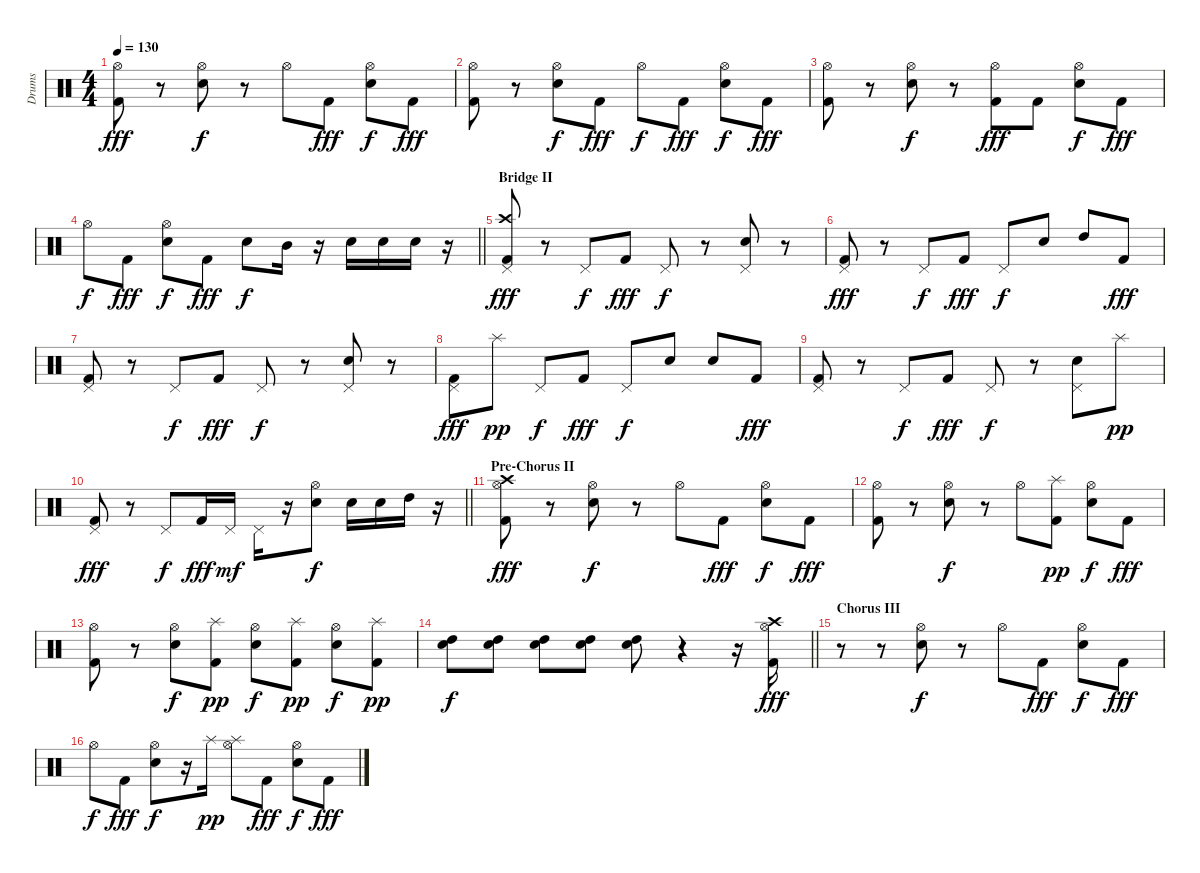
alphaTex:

\track ("Drums" "Drums") {instrument percussion}
\staff {score}
\articulation defaults
\ts (4 4)
\tempo 130
\clef neutral
\ks c
("Kick (hit) 2" "Hi-Hat (open)").8{dy fff} r.8 ("Snare (hit) 2" "Hi-Hat (open)").8{dy f} r.8 "Hi-Hat (open)".8 "Kick (hit) 2".8{dy fff} ("Snare (hit) 2" "Hi-Hat (open)").8{dy f} "Kick (hit) 2".8{dy fff} |
("Kick (hit) 2" "Hi-Hat (open)").8 r.8 ("Snare (hit) 2" "Hi-Hat (open)").8{dy f} "Kick (hit) 2".8{dy fff} "Hi-Hat (open)".8{dy f} "Kick (hit) 2".8{dy fff} ("Snare (hit) 2" "Hi-Hat (open)").8{dy f} "Kick (hit) 2".8{dy fff} |
("Kick (hit) 2" "Hi-Hat (open)").8 r.8 ("Snare (hit) 2" "Hi-Hat (open)").8{dy f} r.8 ("Kick (hit) 2" "Hi-Hat (open)").8{dy fff} "Kick (hit) 2".8 ("Snare (hit) 2" "Hi-Hat (open)").8{dy f} "Kick (hit) 2".8{dy fff} |
\barLineRight lightlight "Hi-Hat (open)".8{dy f} "Kick (hit) 2".8{dy fff}
("Snare (hit) 2" "Hi-Hat (open)").8{dy f} "Kick (hit) 2".8{dy fff} "Snare (hit) 2".8{dy f} "Mid Tom (hit)".16 r.16 "Snare (hit) 2".16 "Snare (hit) 2".16 "Snare (hit) 2".16 r.16 |
\section ("" "Bridge II")
("Kick (hit) 2" "Crash high (hit)" "Pedal Hi-Hat (hit)").8{dy fff} r.8 "Pedal Hi-Hat (hit)".8{dy f} "Kick (hit) 2".8{dy fff} "Pedal Hi-Hat (hit)".8{dy f} r.8 ("Snare (hit) 2" "Pedal Hi-Hat (hit)").8 r.8 |
("Kick (hit) 2" "Pedal Hi-Hat (hit)").8{dy fff} r.8 "Pedal Hi-Hat (hit)".8{dy f} "Kick (hit) 2".8{dy fff} "Pedal Hi-Hat (hit)".8{dy f} "Snare (hit) 2".8 "High Tom (hit)".8 "Kick (hit) 2".8{dy fff} |
("Kick (hit) 2" "Pedal Hi-Hat (hit)").8 r.8 "Pedal Hi-Hat (hit)".8{dy f} "Kick (hit) 2".8{dy fff} "Pedal Hi-Hat (hit)".8{dy f} r.8 ("Snare (hit) 2" "Pedal Hi-Hat (hit)").8 r.8 |
("Kick (hit) 2" "Pedal Hi-Hat (hit)").8{dy fff} "Splash (hit)".8{dy pp} "Pedal Hi-Hat (hit)".8{dy f} "Kick (hit) 2".8{dy fff} "Pedal Hi-Hat (hit)".8{dy f} "Snare (hit) 2".8 "Snare (hit) 2".8 "Kick (hit) 2".8{dy fff} |
("Kick (hit) 2" "Pedal Hi-Hat (hit)").8 r.8 "Pedal Hi-Hat (hit)".8{dy f} "Kick (hit) 2".8{dy fff} "Pedal Hi-Hat (hit)".8{dy f} r.8 ("Snare (hit) 2" "Pedal Hi-Hat (hit)").8 "Splash (hit)".8{dy pp} |
\barLineRight lightlight
("Kick (hit) 2" "Pedal Hi-Hat (hit)").8{dy fff} r.8 "Pedal Hi-Hat (hit)".8{dy f} "Kick (hit) 2".16{dy fff} "Pedal Hi-Hat (hit)".16{dy mf} "Pedal Hi-Hat (hit)".16 r.16 ("Snare (hit) 2" "Hi-Hat (open)").8{dy f} "Snare (hit) 2".16 "Snare (hit) 2".16 "High Tom (hit)".16 r.16 |
\section ("" "Pre-Chorus II")
("Kick (hit) 2" "Crash high (hit)" "Hi-Hat (open)").8{dy fff} r.8 ("Snare (hit) 2" "Hi-Hat (open)").8{dy f} r.8 "Hi-Hat (open)".8 "Kick (hit) 2".8{dy fff} ("Snare (hit) 2" "Hi-Hat (open)").8{dy f} "Kick (hit) 2".8{dy fff} |
("Kick (hit) 2" "Hi-Hat (open)").8 r.8 ("Snare (hit) 2" "Hi-Hat (open)").8{dy f} r.8 "Hi-Hat (open)".8 ("Kick (hit) 2" "Splash (hit)").8{dy pp} ("Snare (hit) 2" "Hi-Hat (open)").8{dy f} "Kick (hit) 2".8{dy fff} |
("Kick (hit) 2" "Hi-Hat (open)").8 r.8 ("Snare (hit) 2" "Hi-Hat (open)").8{dy f} ("Kick (hit) 2" "Splash (hit)").8{dy pp} ("Snare (hit) 2" "Hi-Hat (open)").8{dy f} ("Kick (hit) 2" "Splash (hit)").8{dy pp} ("Snare (hit) 2" "Hi-Hat (open)").8{dy f} ("Kick (hit) 2" "Splash (hit)").8{dy pp} |
\barLineRight lightlight
("Snare (hit) 2" "High Tom (hit)").8{dy f} ("Snare (hit) 2" "High Tom (hit)").8 ("Snare (hit) 2" "High Tom (hit)").8 ("Snare (hit) 2" "High Tom (hit)").8 ("Snare (hit) 2" "High Tom (hit)").8 r.4 r.16 ("Kick (hit) 2" "Crash high (hit)" "Hi-Hat (open)").16{dy fff} |
\section ("" "Chorus III")
r.8 r.8 ("Snare (hit) 2" "Hi-Hat (open)").8{dy f} r.8 "Hi-Hat (open)".8 "Kick (hit) 2".8{dy fff} ("Snare (hit) 2" "Hi-Hat (open)").8{dy f} "Kick (hit) 2".8{dy fff} |
"Hi-Hat (open)".8{dy f} "Kick (hit) 2".8{dy fff} ("Snare (hit) 2" "Hi-Hat (open)").8{dy f} r.16 "Splash (hit)".16{dy pp} ("Splash (hit)" "Hi-Hat (open)").8 "Kick (hit) 2".8{dy fff} ("Snare (hit) 2" "Hi-Hat (open)").8{dy f} "Kick (hit) 2".8{dy fff}
